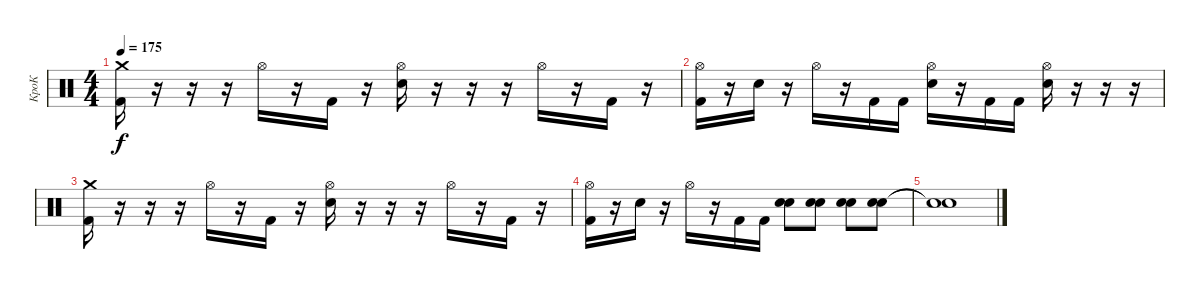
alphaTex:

\track ("КроК" "КроК") {instrument percussion}
\staff {score}
\articulation defaults
\ts (4 4)
\tempo 175
\clef neutral
\ks c
("Crash medium (hit)" "Kick (hit) 2").16{dy f} r.16 r.16 r.16 "Hi-Hat (open)".16 r.16 "Kick (hit) 2".16 r.16 ("Hi-Hat (open)" "Electric Snare (hit)").16 r.16 r.16 r.16 "Hi-Hat (open)".16 r.16 "Kick (hit) 2".16 r.16 |
("Hi-Hat (open)" "Kick (hit) 2").16 r.16 "Electric Snare (hit)".16 r.16 "Hi-Hat (open)".16 r.16 "Kick (hit) 2".16 "Kick (hit) 2".16 ("Hi-Hat (open)" "Electric Snare (hit)").16 r.16 "Kick (hit) 2".16 "Kick (hit) 2".16 ("Hi-Hat (open)" "Electric Snare (hit)").16 r.16 r.16 r.16 |
("Crash medium (hit)" "Kick (hit) 2").16 r.16 r.16 r.16 "Hi-Hat (open)".16 r.16 "Kick (hit) 2".16 r.16 ("Hi-Hat (open)" "Electric Snare (hit)").16 r.16 r.16 r.16 "Hi-Hat (open)".16 r.16 "Kick (hit) 2".16 r.16 |
("Hi-Hat (open)" "Kick (hit) 2").16 r.16 "Electric Snare (hit)".16 r.16 "Hi-Hat (open)".16 r.16 "Kick (hit) 2".16 "Kick (hit) 2".16 ("Electric Snare (hit)" "Electric Snare (hit)").8 ("Electric Snare (hit)" "Electric Snare (hit)").8 ("Electric Snare (hit)" "Electric Snare (hit)").8 ("Electric Snare (hit)" "Electric Snare (hit)").8 |
("Electric Snare (hit)"{t} "Electric Snare (hit)"{t}).1
